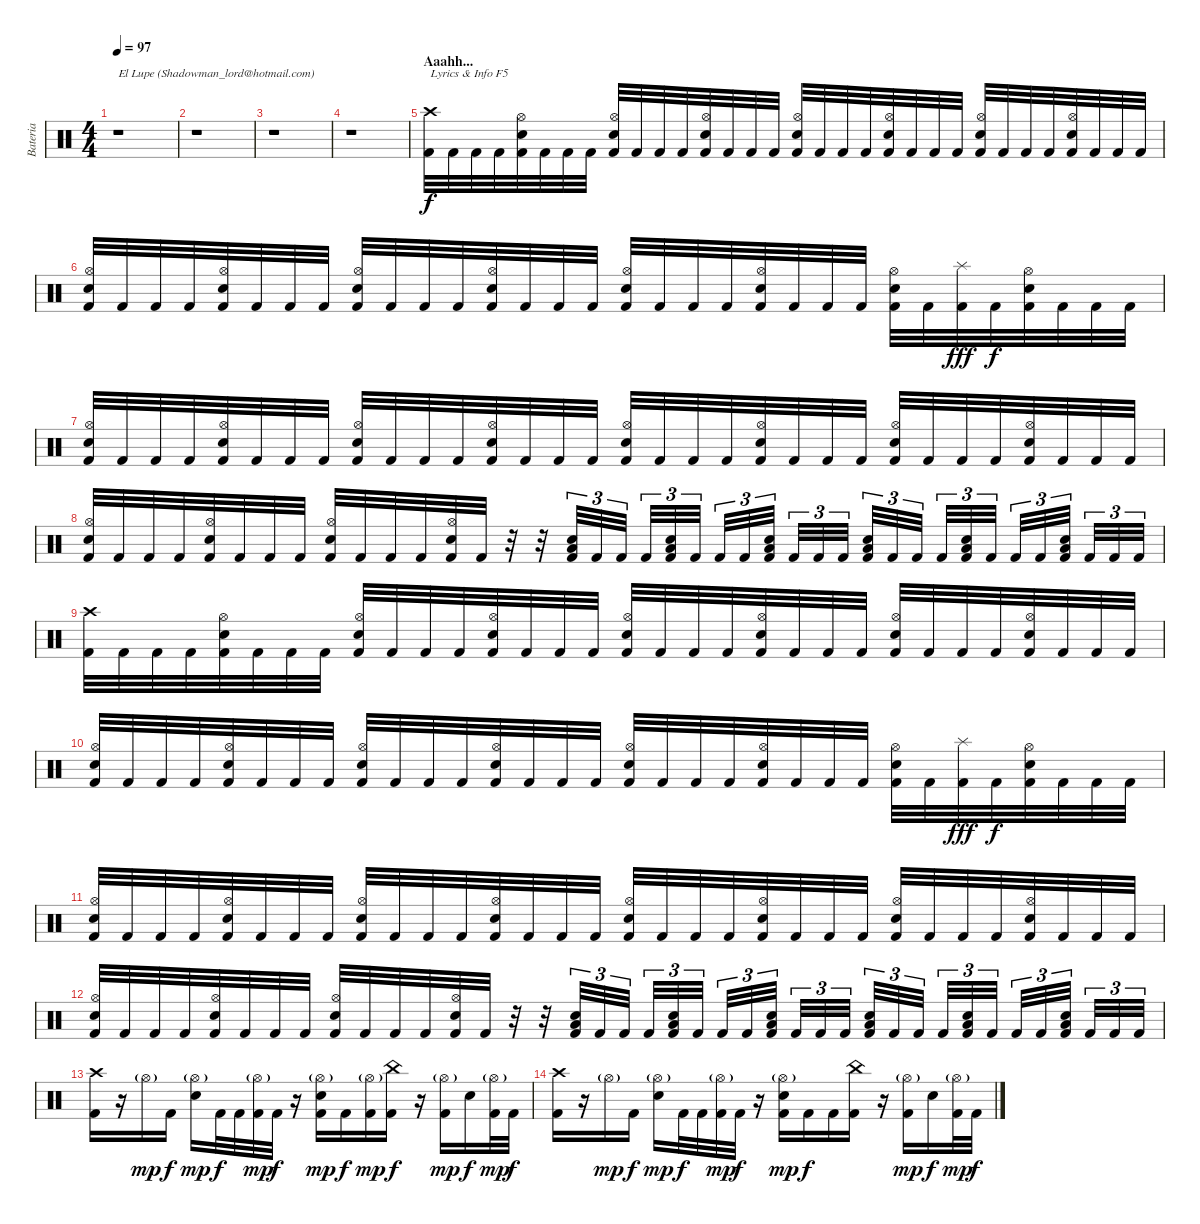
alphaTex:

\track ("Bateria" "Bateria") {instrument percussion}
\staff {score}
\articulation defaults
\ts (4 4)
\tempo 97
\clef neutral
\ks c
r.1{txt "El Lupe (Shadowman_lord@hotmail.com)" dy f} |
r.1 |
r.1 |
r.1 |
\section ("" "Aaahh...")
("Crash high (hit)" "Kick (hit) 2").32{txt "Lyrics & Info F5"} "Kick (hit) 2".32 "Kick (hit) 2".32 "Kick (hit) 2".32 ("Hi-Hat (open)" "Electric Snare (hit)" "Kick (hit) 2").32 "Kick (hit) 2".32 "Kick (hit) 2".32 "Kick (hit) 2".32 ("Hi-Hat (open)" "Electric Snare (hit)" "Kick (hit) 2").32 "Kick (hit) 2".32 "Kick (hit) 2".32 "Kick (hit) 2".32 ("Hi-Hat (open)" "Electric Snare (hit)" "Kick (hit) 2").32 "Kick (hit) 2".32 "Kick (hit) 2".32 "Kick (hit) 2".32 ("Hi-Hat (open)" "Electric Snare (hit)" "Kick (hit) 2").32 "Kick (hit) 2".32 "Kick (hit) 2".32 "Kick (hit) 2".32 ("Hi-Hat (open)" "Electric Snare (hit)" "Kick (hit) 2").32 "Kick (hit) 2".32 "Kick (hit) 2".32 "Kick (hit) 2".32 ("Hi-Hat (open)" "Electric Snare (hit)" "Kick (hit) 2").32 "Kick (hit) 2".32 "Kick (hit) 2".32 "Kick (hit) 2".32 ("Hi-Hat (open)" "Electric Snare (hit)" "Kick (hit) 2").32 "Kick (hit) 2".32 "Kick (hit) 2".32 "Kick (hit) 2".32 |
("Hi-Hat (open)" "Electric Snare (hit)" "Kick (hit) 2").32 "Kick (hit) 2".32 "Kick (hit) 2".32 "Kick (hit) 2".32 ("Hi-Hat (open)" "Electric Snare (hit)" "Kick (hit) 2").32 "Kick (hit) 2".32 "Kick (hit) 2".32 "Kick (hit) 2".32 ("Hi-Hat (open)" "Electric Snare (hit)" "Kick (hit) 2").32 "Kick (hit) 2".32 "Kick (hit) 2".32 "Kick (hit) 2".32 ("Hi-Hat (open)" "Electric Snare (hit)" "Kick (hit) 2").32 "Kick (hit) 2".32 "Kick (hit) 2".32 "Kick (hit) 2".32 ("Hi-Hat (open)" "Electric Snare (hit)" "Kick (hit) 2").32 "Kick (hit) 2".32 "Kick (hit) 2".32 "Kick (hit) 2".32 ("Hi-Hat (open)" "Electric Snare (hit)" "Kick (hit) 2").32 "Kick (hit) 2".32 "Kick (hit) 2".32 "Kick (hit) 2".32 ("Hi-Hat (open)" "Electric Snare (hit)" "Kick (hit) 2").32 "Kick (hit) 2".32 ("Splash (hit)" "Kick (hit) 2").32{dy fff} "Kick (hit) 2".32{dy f} ("Hi-Hat (open)" "Electric Snare (hit)" "Kick (hit) 2").32 "Kick (hit) 2".32 "Kick (hit) 2".32 "Kick (hit) 2".32 |
("Hi-Hat (open)" "Electric Snare (hit)" "Kick (hit) 2").32 "Kick (hit) 2".32 "Kick (hit) 2".32 "Kick (hit) 2".32 ("Hi-Hat (open)" "Electric Snare (hit)" "Kick (hit) 2").32 "Kick (hit) 2".32 "Kick (hit) 2".32 "Kick (hit) 2".32 ("Hi-Hat (open)" "Electric Snare (hit)" "Kick (hit) 2").32 "Kick (hit) 2".32 "Kick (hit) 2".32 "Kick (hit) 2".32 ("Hi-Hat (open)" "Electric Snare (hit)" "Kick (hit) 2").32 "Kick (hit) 2".32 "Kick (hit) 2".32 "Kick (hit) 2".32 ("Hi-Hat (open)" "Electric Snare (hit)" "Kick (hit) 2").32 "Kick (hit) 2".32 "Kick (hit) 2".32 "Kick (hit) 2".32 ("Hi-Hat (open)" "Electric Snare (hit)" "Kick (hit) 2").32 "Kick (hit) 2".32 "Kick (hit) 2".32 "Kick (hit) 2".32 ("Hi-Hat (open)" "Electric Snare (hit)" "Kick (hit) 2").32 "Kick (hit) 2".32 "Kick (hit) 2".32 "Kick (hit) 2".32 ("Hi-Hat (open)" "Electric Snare (hit)" "Kick (hit) 2").32 "Kick (hit) 2".32 "Kick (hit) 2".32 "Kick (hit) 2".32 |
("Hi-Hat (open)" "Electric Snare (hit)" "Kick (hit) 2").32 "Kick (hit) 2".32 "Kick (hit) 2".32 "Kick (hit) 2".32 ("Hi-Hat (open)" "Electric Snare (hit)" "Kick (hit) 2").32 "Kick (hit) 2".32 "Kick (hit) 2".32 "Kick (hit) 2".32 ("Hi-Hat (open)" "Electric Snare (hit)" "Kick (hit) 2").32 "Kick (hit) 2".32 "Kick (hit) 2".32 "Kick (hit) 2".32 ("Hi-Hat (open)" "Electric Snare (hit)" "Kick (hit) 2").32 "Kick (hit) 2".32 r.32 r.32 ("Low Floor Tom (hit)" "Electric Snare (hit)" "Kick (hit) 2").32{tu (3 2)} "Kick (hit) 2".32{tu (3 2)} "Kick (hit) 2".32{tu (3 2)} "Kick (hit) 2".32{tu (3 2)} ("Low Floor Tom (hit)" "Electric Snare (hit)" "Kick (hit) 2").32{tu (3 2)} "Kick (hit) 2".32{tu (3 2)} "Kick (hit) 2".32{tu (3 2)} "Kick (hit) 2".32{tu (3 2)} ("Low Floor Tom (hit)" "Electric Snare (hit)" "Kick (hit) 2").32{tu (3 2)} "Kick (hit) 2".32{tu (3 2)} "Kick (hit) 2".32{tu (3 2)} "Kick (hit) 2".32{tu (3 2)} ("Low Floor Tom (hit)" "Electric Snare (hit)" "Kick (hit) 2").32{tu (3 2)} "Kick (hit) 2".32{tu (3 2)} "Kick (hit) 2".32{tu (3 2)} "Kick (hit) 2".32{tu (3 2)} ("Low Floor Tom (hit)" "Electric Snare (hit)" "Kick (hit) 2").32{tu (3 2)} "Kick (hit) 2".32{tu (3 2)} "Kick (hit) 2".32{tu (3 2)} "Kick (hit) 2".32{tu (3 2)} ("Low Floor Tom (hit)" "Electric Snare (hit)" "Kick (hit) 2").32{tu (3 2)} "Kick (hit) 2".32{tu (3 2)} "Kick (hit) 2".32{tu (3 2)} "Kick (hit) 2".32{tu (3 2)} |
("Crash high (hit)" "Kick (hit) 2").32 "Kick (hit) 2".32 "Kick (hit) 2".32 "Kick (hit) 2".32 ("Hi-Hat (open)" "Electric Snare (hit)" "Kick (hit) 2").32 "Kick (hit) 2".32 "Kick (hit) 2".32 "Kick (hit) 2".32 ("Hi-Hat (open)" "Electric Snare (hit)" "Kick (hit) 2").32 "Kick (hit) 2".32 "Kick (hit) 2".32 "Kick (hit) 2".32 ("Hi-Hat (open)" "Electric Snare (hit)" "Kick (hit) 2").32 "Kick (hit) 2".32 "Kick (hit) 2".32 "Kick (hit) 2".32 ("Hi-Hat (open)" "Electric Snare (hit)" "Kick (hit) 2").32 "Kick (hit) 2".32 "Kick (hit) 2".32 "Kick (hit) 2".32 ("Hi-Hat (open)" "Electric Snare (hit)" "Kick (hit) 2").32 "Kick (hit) 2".32 "Kick (hit) 2".32 "Kick (hit) 2".32 ("Hi-Hat (open)" "Electric Snare (hit)" "Kick (hit) 2").32 "Kick (hit) 2".32 "Kick (hit) 2".32 "Kick (hit) 2".32 ("Hi-Hat (open)" "Electric Snare (hit)" "Kick (hit) 2").32 "Kick (hit) 2".32 "Kick (hit) 2".32 "Kick (hit) 2".32 |
("Hi-Hat (open)" "Electric Snare (hit)" "Kick (hit) 2").32 "Kick (hit) 2".32 "Kick (hit) 2".32 "Kick (hit) 2".32 ("Hi-Hat (open)" "Electric Snare (hit)" "Kick (hit) 2").32 "Kick (hit) 2".32 "Kick (hit) 2".32 "Kick (hit) 2".32 ("Hi-Hat (open)" "Electric Snare (hit)" "Kick (hit) 2").32 "Kick (hit) 2".32 "Kick (hit) 2".32 "Kick (hit) 2".32 ("Hi-Hat (open)" "Electric Snare (hit)" "Kick (hit) 2").32 "Kick (hit) 2".32 "Kick (hit) 2".32 "Kick (hit) 2".32 ("Hi-Hat (open)" "Electric Snare (hit)" "Kick (hit) 2").32 "Kick (hit) 2".32 "Kick (hit) 2".32 "Kick (hit) 2".32 ("Hi-Hat (open)" "Electric Snare (hit)" "Kick (hit) 2").32 "Kick (hit) 2".32 "Kick (hit) 2".32 "Kick (hit) 2".32 ("Hi-Hat (open)" "Electric Snare (hit)" "Kick (hit) 2").32 "Kick (hit) 2".32 ("Splash (hit)" "Kick (hit) 2").32{dy fff} "Kick (hit) 2".32{dy f} ("Hi-Hat (open)" "Electric Snare (hit)" "Kick (hit) 2").32 "Kick (hit) 2".32 "Kick (hit) 2".32 "Kick (hit) 2".32 |
("Hi-Hat (open)" "Electric Snare (hit)" "Kick (hit) 2").32 "Kick (hit) 2".32 "Kick (hit) 2".32 "Kick (hit) 2".32 ("Hi-Hat (open)" "Electric Snare (hit)" "Kick (hit) 2").32 "Kick (hit) 2".32 "Kick (hit) 2".32 "Kick (hit) 2".32 ("Hi-Hat (open)" "Electric Snare (hit)" "Kick (hit) 2").32 "Kick (hit) 2".32 "Kick (hit) 2".32 "Kick (hit) 2".32 ("Hi-Hat (open)" "Electric Snare (hit)" "Kick (hit) 2").32 "Kick (hit) 2".32 "Kick (hit) 2".32 "Kick (hit) 2".32 ("Hi-Hat (open)" "Electric Snare (hit)" "Kick (hit) 2").32 "Kick (hit) 2".32 "Kick (hit) 2".32 "Kick (hit) 2".32 ("Hi-Hat (open)" "Electric Snare (hit)" "Kick (hit) 2").32 "Kick (hit) 2".32 "Kick (hit) 2".32 "Kick (hit) 2".32 ("Hi-Hat (open)" "Electric Snare (hit)" "Kick (hit) 2").32 "Kick (hit) 2".32 "Kick (hit) 2".32 "Kick (hit) 2".32 ("Hi-Hat (open)" "Electric Snare (hit)" "Kick (hit) 2").32 "Kick (hit) 2".32 "Kick (hit) 2".32 "Kick (hit) 2".32 |
("Hi-Hat (open)" "Electric Snare (hit)" "Kick (hit) 2").32 "Kick (hit) 2".32 "Kick (hit) 2".32 "Kick (hit) 2".32 ("Hi-Hat (open)" "Electric Snare (hit)" "Kick (hit) 2").32 "Kick (hit) 2".32 "Kick (hit) 2".32 "Kick (hit) 2".32 ("Hi-Hat (open)" "Electric Snare (hit)" "Kick (hit) 2").32 "Kick (hit) 2".32 "Kick (hit) 2".32 "Kick (hit) 2".32 ("Hi-Hat (open)" "Electric Snare (hit)" "Kick (hit) 2").32 "Kick (hit) 2".32 r.32 r.32 ("Low Floor Tom (hit)" "Electric Snare (hit)" "Kick (hit) 2").32{tu (3 2)} "Kick (hit) 2".32{tu (3 2)} "Kick (hit) 2".32{tu (3 2)} "Kick (hit) 2".32{tu (3 2)} ("Low Floor Tom (hit)" "Electric Snare (hit)" "Kick (hit) 2").32{tu (3 2)} "Kick (hit) 2".32{tu (3 2)} "Kick (hit) 2".32{tu (3 2)} "Kick (hit) 2".32{tu (3 2)} ("Low Floor Tom (hit)" "Electric Snare (hit)" "Kick (hit) 2").32{tu (3 2)} "Kick (hit) 2".32{tu (3 2)} "Kick (hit) 2".32{tu (3 2)} "Kick (hit) 2".32{tu (3 2)} ("Low Floor Tom (hit)" "Electric Snare (hit)" "Kick (hit) 2").32{tu (3 2)} "Kick (hit) 2".32{tu (3 2)} "Kick (hit) 2".32{tu (3 2)} "Kick (hit) 2".32{tu (3 2)} ("Low Floor Tom (hit)" "Electric Snare (hit)" "Kick (hit) 2").32{tu (3 2)} "Kick (hit) 2".32{tu (3 2)} "Kick (hit) 2".32{tu (3 2)} "Kick (hit) 2".32{tu (3 2)} ("Low Floor Tom (hit)" "Electric Snare (hit)" "Kick (hit) 2").32{tu (3 2)} "Kick (hit) 2".32{tu (3 2)} "Kick (hit) 2".32{tu (3 2)} "Kick (hit) 2".32{tu (3 2)} |
("Crash high (hit)" "Kick (hit) 2").16 r.16 "Hi-Hat (open)"{g}.16{dy mp} "Kick (hit) 2".16{dy f} ("Hi-Hat (open)"{g} "Electric Snare (hit)").16{dy mp} "Kick (hit) 2".32{dy f} "Kick (hit) 2".32 ("Hi-Hat (open)"{g} "Kick (hit) 2").32{dy mp} "Kick (hit) 2".32{dy f} r.16 ("Hi-Hat (open)"{g} "Electric Snare (hit)" "Kick (hit) 2").16{dy mp} "Kick (hit) 2".16{dy f} ("Hi-Hat (open)"{g} "Kick (hit) 2").16{dy mp} ("China (hit)" "Kick (hit) 2").16{dy f} r.16 ("Hi-Hat (open)"{g} "Kick (hit) 2").16{dy mp} "Electric Snare (hit)".16{dy f} ("Hi-Hat (open)"{g} "Kick (hit) 2").32{dy mp} "Kick (hit) 2".32{dy f} |
("Crash high (hit)" "Kick (hit) 2").16 r.16 "Hi-Hat (open)"{g}.16{dy mp} "Kick (hit) 2".16{dy f} ("Hi-Hat (open)"{g} "Electric Snare (hit)").16{dy mp} "Kick (hit) 2".32{dy f} "Kick (hit) 2".32 ("Hi-Hat (open)"{g} "Kick (hit) 2").32{dy mp} "Kick (hit) 2".32{dy f} r.16 ("Hi-Hat (open)"{g} "Electric Snare (hit)" "Kick (hit) 2").16{dy mp} "Kick (hit) 2".16{dy f} "Kick (hit) 2".16 ("China (hit)" "Kick (hit) 2").16 r.16 ("Hi-Hat (open)"{g} "Kick (hit) 2").16{dy mp} "Electric Snare (hit)".16{dy f} ("Hi-Hat (open)"{g} "Kick (hit) 2").32{dy mp} "Kick (hit) 2".32{dy f}
